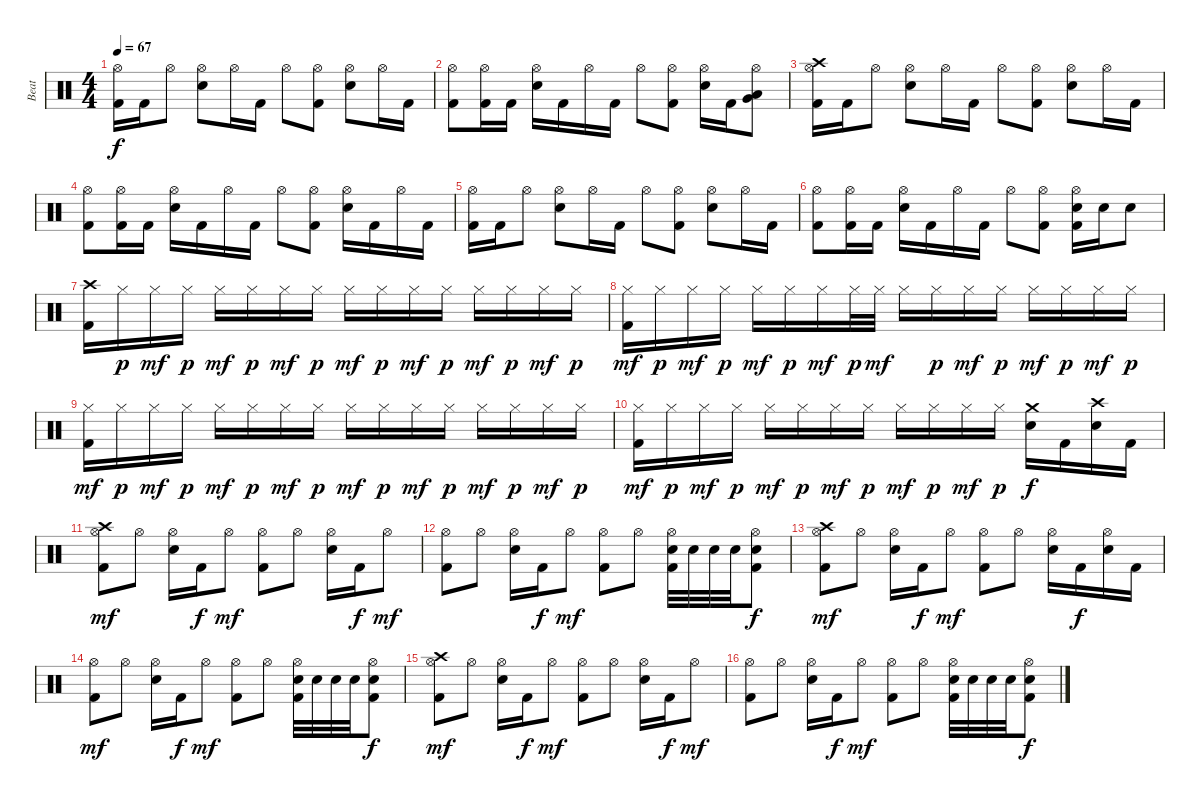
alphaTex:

\track ("Beat" "Beat") {instrument percussion}
\staff {score}
\articulation defaults
\ts (4 4)
\tempo 67
\clef neutral
\ks c
("Hi-Hat (open)" "Kick (hit) 2").16{dy f} "Kick (hit) 2".16 "Hi-Hat (open)".8 ("Hi-Hat (open)" "Electric Snare (hit)").8 "Hi-Hat (open)".16 "Kick (hit) 2".16 "Hi-Hat (open)".8 ("Hi-Hat (open)" "Kick (hit) 2").8 ("Hi-Hat (open)" "Electric Snare (hit)").8 "Hi-Hat (open)".16 "Kick (hit) 2".16 |
("Hi-Hat (open)" "Kick (hit) 2").8 ("Hi-Hat (open)" "Kick (hit) 2").16 "Kick (hit) 2".16 ("Hi-Hat (open)" "Electric Snare (hit)").16 "Kick (hit) 2".16 "Hi-Hat (open)".16 "Kick (hit) 2".16 "Hi-Hat (open)".8 ("Hi-Hat (open)" "Kick (hit) 2").8 ("Hi-Hat (open)" "Electric Snare (hit)").16 "Kick (hit) 2".16 ("Hi-Hat (open)" "Very Low Tom (hit)" "Low Tom (hit)").8 |
("Crash high (hit)" "Hi-Hat (open)" "Kick (hit) 2").16 "Kick (hit) 2".16 "Hi-Hat (open)".8 ("Hi-Hat (open)" "Electric Snare (hit)").8 "Hi-Hat (open)".16 "Kick (hit) 2".16 "Hi-Hat (open)".8 ("Hi-Hat (open)" "Kick (hit) 2").8 ("Hi-Hat (open)" "Electric Snare (hit)").8 "Hi-Hat (open)".16 "Kick (hit) 2".16 |
("Hi-Hat (open)" "Kick (hit) 2").8 ("Hi-Hat (open)" "Kick (hit) 2").16 "Kick (hit) 2".16 ("Hi-Hat (open)" "Electric Snare (hit)").16 "Kick (hit) 2".16 "Hi-Hat (open)".16 "Kick (hit) 2".16 "Hi-Hat (open)".8 ("Hi-Hat (open)" "Kick (hit) 2").8 ("Hi-Hat (open)" "Electric Snare (hit)").16 "Kick (hit) 2".16 "Hi-Hat (open)".16 "Kick (hit) 2".16 |
("Hi-Hat (open)" "Kick (hit) 2").16 "Kick (hit) 2".16 "Hi-Hat (open)".8 ("Hi-Hat (open)" "Electric Snare (hit)").8 "Hi-Hat (open)".16 "Kick (hit) 2".16 "Hi-Hat (open)".8 ("Hi-Hat (open)" "Kick (hit) 2").8 ("Hi-Hat (open)" "Electric Snare (hit)").8 "Hi-Hat (open)".16 "Kick (hit) 2".16 |
("Hi-Hat (open)" "Kick (hit) 2").8 ("Hi-Hat (open)" "Kick (hit) 2").16 "Kick (hit) 2".16 ("Hi-Hat (open)" "Electric Snare (hit)").16 "Kick (hit) 2".16 "Hi-Hat (open)".16 "Kick (hit) 2".16 "Hi-Hat (open)".8 ("Hi-Hat (open)" "Kick (hit) 2").8 ("Hi-Hat (open)" "Electric Snare (hit)" "Kick (hit) 2").16 "Electric Snare (hit)".16 "Electric Snare (hit)".8 |
("Crash high (hit)" "Kick (hit) 2").16 "Hi-Hat (closed)".16{dy p} "Hi-Hat (closed)".16{dy mf} "Hi-Hat (closed)".16{dy p} "Hi-Hat (closed)".16{dy mf} "Hi-Hat (closed)".16{dy p} "Hi-Hat (closed)".16{dy mf} "Hi-Hat (closed)".16{dy p} "Hi-Hat (closed)".16{dy mf} "Hi-Hat (closed)".16{dy p} "Hi-Hat (closed)".16{dy mf} "Hi-Hat (closed)".16{dy p} "Hi-Hat (closed)".16{dy mf} "Hi-Hat (closed)".16{dy p} "Hi-Hat (closed)".16{dy mf} "Hi-Hat (closed)".16{dy p} |
("Hi-Hat (closed)" "Kick (hit) 2").16{dy mf} "Hi-Hat (closed)".16{dy p} "Hi-Hat (closed)".16{dy mf} "Hi-Hat (closed)".16{dy p} "Hi-Hat (closed)".16{dy mf} "Hi-Hat (closed)".16{dy p} "Hi-Hat (closed)".16{dy mf} "Hi-Hat (closed)".32{dy p} "Hi-Hat (closed)".32{dy mf} "Hi-Hat (closed)".16 "Hi-Hat (closed)".16{dy p} "Hi-Hat (closed)".16{dy mf} "Hi-Hat (closed)".16{dy p} "Hi-Hat (closed)".16{dy mf} "Hi-Hat (closed)".16{dy p} "Hi-Hat (closed)".16{dy mf} "Hi-Hat (closed)".16{dy p} |
("Hi-Hat (closed)" "Kick (hit) 2").16{dy mf} "Hi-Hat (closed)".16{dy p} "Hi-Hat (closed)".16{dy mf} "Hi-Hat (closed)".16{dy p} "Hi-Hat (closed)".16{dy mf} "Hi-Hat (closed)".16{dy p} "Hi-Hat (closed)".16{dy mf} "Hi-Hat (closed)".16{dy p} "Hi-Hat (closed)".16{dy mf} "Hi-Hat (closed)".16{dy p} "Hi-Hat (closed)".16{dy mf} "Hi-Hat (closed)".16{dy p} "Hi-Hat (closed)".16{dy mf} "Hi-Hat (closed)".16{dy p} "Hi-Hat (closed)".16{dy mf} "Hi-Hat (closed)".16{dy p} |
("Hi-Hat (closed)" "Kick (hit) 2").16{dy mf} "Hi-Hat (closed)".16{dy p} "Hi-Hat (closed)".16{dy mf} "Hi-Hat (closed)".16{dy p} "Hi-Hat (closed)".16{dy mf} "Hi-Hat (closed)".16{dy p} "Hi-Hat (closed)".16{dy mf} "Hi-Hat (closed)".16{dy p} "Hi-Hat (closed)".16{dy mf} "Hi-Hat (closed)".16{dy p} "Hi-Hat (closed)".16{dy mf} "Hi-Hat (closed)".16{dy p} ("Crash medium (hit)" "Electric Snare (hit)").16{dy f} "Kick (hit) 2".16 ("Crash high (hit)" "Electric Snare (hit)").16 "Kick (hit) 2".16 |
("Crash high (hit)" "Hi-Hat (open)" "Kick (hit) 2").8{dy mf} "Hi-Hat (open)".8 ("Hi-Hat (open)" "Electric Snare (hit)").16 "Kick (hit) 2".16{dy f} "Hi-Hat (open)".8{dy mf} ("Hi-Hat (open)" "Kick (hit) 2").8 "Hi-Hat (open)".8 ("Hi-Hat (open)" "Electric Snare (hit)").16 "Kick (hit) 2".16{dy f} "Hi-Hat (open)".8{dy mf} |
("Hi-Hat (open)" "Kick (hit) 2").8 "Hi-Hat (open)".8 ("Hi-Hat (open)" "Electric Snare (hit)").16 "Kick (hit) 2".16{dy f} "Hi-Hat (open)".8{dy mf} ("Hi-Hat (open)" "Kick (hit) 2").8 "Hi-Hat (open)".8 ("Hi-Hat (open)" "Electric Snare (hit)" "Kick (hit) 2").32 "Electric Snare (hit)".32 "Electric Snare (hit)".32 "Electric Snare (hit)".32 ("Hi-Hat (open)" "Electric Snare (hit)" "Kick (hit) 2").8{dy f} |
("Crash high (hit)" "Hi-Hat (open)" "Kick (hit) 2").8{dy mf} "Hi-Hat (open)".8 ("Hi-Hat (open)" "Electric Snare (hit)").16 "Kick (hit) 2".16{dy f} "Hi-Hat (open)".8{dy mf} ("Hi-Hat (open)" "Kick (hit) 2").8 "Hi-Hat (open)".8 ("Hi-Hat (open)" "Electric Snare (hit)").16 "Kick (hit) 2".16{dy f} ("Hi-Hat (open)" "Electric Snare (hit)").16 "Kick (hit) 2".16 |
("Hi-Hat (open)" "Kick (hit) 2").8{dy mf} "Hi-Hat (open)".8 ("Hi-Hat (open)" "Electric Snare (hit)").16 "Kick (hit) 2".16{dy f} "Hi-Hat (open)".8{dy mf} ("Hi-Hat (open)" "Kick (hit) 2").8 "Hi-Hat (open)".8 ("Hi-Hat (open)" "Electric Snare (hit)" "Kick (hit) 2").32 "Electric Snare (hit)".32 "Electric Snare (hit)".32 "Electric Snare (hit)".32 ("Hi-Hat (open)" "Electric Snare (hit)" "Kick (hit) 2").8{dy f} |
("Crash high (hit)" "Hi-Hat (open)" "Kick (hit) 2").8{dy mf} "Hi-Hat (open)".8 ("Hi-Hat (open)" "Electric Snare (hit)").16 "Kick (hit) 2".16{dy f} "Hi-Hat (open)".8{dy mf} ("Hi-Hat (open)" "Kick (hit) 2").8 "Hi-Hat (open)".8 ("Hi-Hat (open)" "Electric Snare (hit)").16 "Kick (hit) 2".16{dy f} "Hi-Hat (open)".8{dy mf} |
("Hi-Hat (open)" "Kick (hit) 2").8 "Hi-Hat (open)".8 ("Hi-Hat (open)" "Electric Snare (hit)").16 "Kick (hit) 2".16{dy f} "Hi-Hat (open)".8{dy mf} ("Hi-Hat (open)" "Kick (hit) 2").8 "Hi-Hat (open)".8 ("Hi-Hat (open)" "Electric Snare (hit)" "Kick (hit) 2").32 "Electric Snare (hit)".32 "Electric Snare (hit)".32 "Electric Snare (hit)".32 ("Hi-Hat (open)" "Electric Snare (hit)" "Kick (hit) 2").8{dy f}
